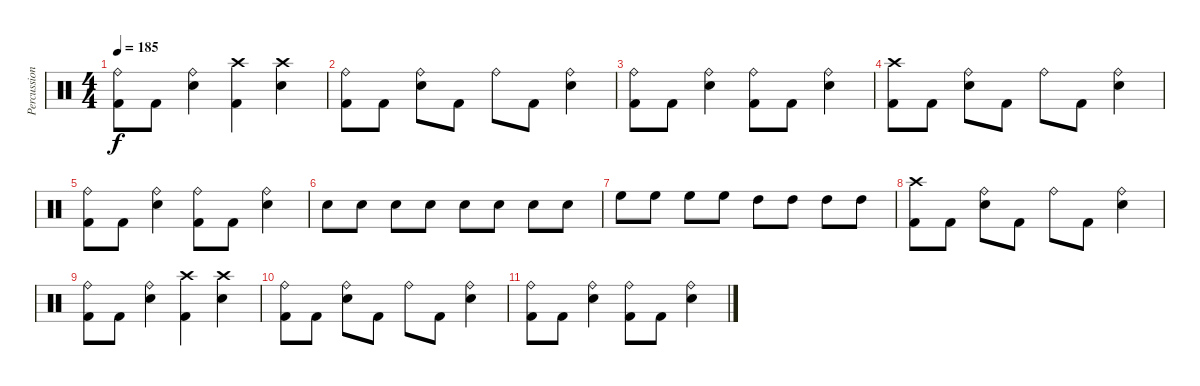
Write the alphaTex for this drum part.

\track ("Percussion" "Percussion") {instrument percussion}
\staff {score}
\articulation defaults
\ts (4 4)
\tempo 185
\clef neutral
\ks c
("Ride (bell)" "Kick (hit) 2").8{dy f} "Kick (hit) 2".8 ("Ride (bell)" "Snare (hit) 2").4 ("Crash high (hit)" "Kick (hit) 2").4 ("Crash high (hit)" "Snare (hit) 2").4 |
("Ride (bell)" "Kick (hit) 2").8 "Kick (hit) 2".8 ("Ride (bell)" "Snare (hit) 2").8 "Kick (hit) 2".8 "Ride (bell)".8 "Kick (hit) 2".8 ("Ride (bell)" "Snare (hit) 2").4 |
("Ride (bell)" "Kick (hit) 2").8 "Kick (hit) 2".8 ("Ride (bell)" "Snare (hit) 2").4 ("Ride (bell)" "Kick (hit) 2").8 "Kick (hit) 2".8 ("Ride (bell)" "Snare (hit) 2").4 |
("Crash high (hit)" "Kick (hit) 2").8 "Kick (hit) 2".8 ("Ride (bell)" "Snare (hit) 2").8 "Kick (hit) 2".8 "Ride (bell)".8 "Kick (hit) 2".8 ("Ride (bell)" "Snare (hit) 2").4 |
("Ride (bell)" "Kick (hit) 2").8 "Kick (hit) 2".8 ("Ride (bell)" "Snare (hit) 2").4 ("Ride (bell)" "Kick (hit) 2").8 "Kick (hit) 2".8 ("Ride (bell)" "Snare (hit) 2").4 |
"Snare (hit) 2".8 "Snare (hit) 2".8 "Snare (hit) 2".8 "Snare (hit) 2".8 "Snare (hit) 2".8 "Snare (hit) 2".8 "Snare (hit) 2".8 "Snare (hit) 2".8 |
"High Floor Tom (hit)".8 "High Floor Tom (hit)".8 "High Floor Tom (hit)".8 "High Floor Tom (hit)".8 "High Tom (hit)".8 "High Tom (hit)".8 "High Tom (hit)".8 "High Tom (hit)".8 |
("Crash high (hit)" "Kick (hit) 2").8 "Kick (hit) 2".8 ("Ride (bell)" "Snare (hit) 2").8 "Kick (hit) 2".8 "Ride (bell)".8 "Kick (hit) 2".8 ("Ride (bell)" "Snare (hit) 2").4 |
("Ride (bell)" "Kick (hit) 2").8 "Kick (hit) 2".8 ("Ride (bell)" "Snare (hit) 2").4 ("Crash high (hit)" "Kick (hit) 2").4 ("Crash high (hit)" "Snare (hit) 2").4 |
("Ride (bell)" "Kick (hit) 2").8 "Kick (hit) 2".8 ("Ride (bell)" "Snare (hit) 2").8 "Kick (hit) 2".8 "Ride (bell)".8 "Kick (hit) 2".8 ("Ride (bell)" "Snare (hit) 2").4 |
("Ride (bell)" "Kick (hit) 2").8 "Kick (hit) 2".8 ("Ride (bell)" "Snare (hit) 2").4 ("Ride (bell)" "Kick (hit) 2").8 "Kick (hit) 2".8 ("Ride (bell)" "Snare (hit) 2").4
